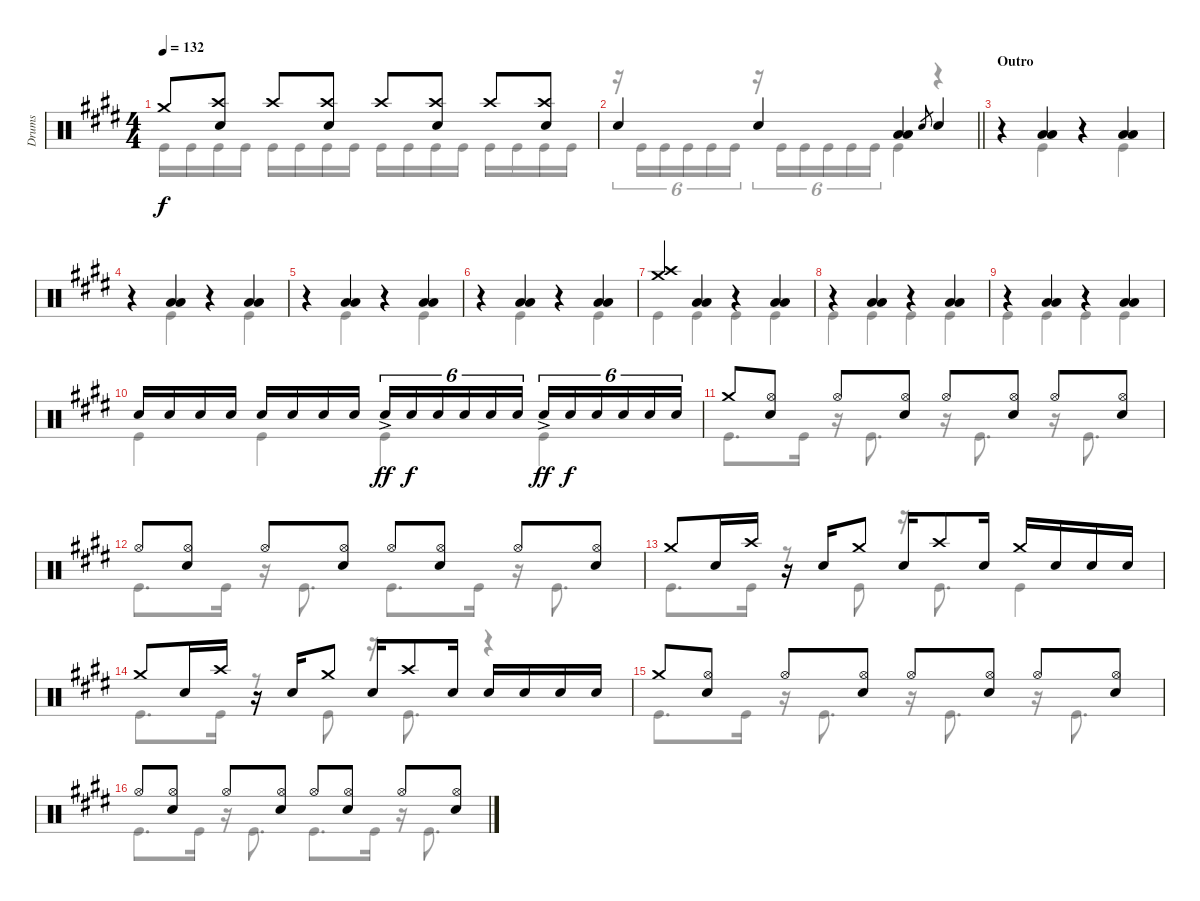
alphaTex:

\track ("Drums" "Drums") {instrument percussion}
\staff {score}
\articulation defaults
\voice
\ts (4 4)
\tempo 132
\clef neutral
\ks c#minor "Crash medium (hit)".8{dy f}
("Crash high (hit)" "Electric Snare (hit)").8 "Crash high (hit)".8 ("Crash high (hit)" "Electric Snare (hit)").8 "Crash high (hit)".8 ("Crash high (hit)" "Electric Snare (hit)").8 "Crash high (hit)".8 ("Crash high (hit)" "Electric Snare (hit)").8 |
\barLineRight lightlight "Electric Snare (hit)".4 "Electric Snare (hit)".4
("Low Tom (hit)" "Low Floor Tom (hit)").4 "Electric Snare (hit)".8{gr} "Electric Snare (hit)".4 |
\section ("" "Outro")
r.4 ("Low Tom (hit)" "Low Floor Tom (hit)").4 r.4 ("Low Tom (hit)" "Low Floor Tom (hit)").4 |
r.4 ("Low Tom (hit)" "Low Floor Tom (hit)").4 r.4 ("Low Tom (hit)" "Low Floor Tom (hit)").4 |
r.4 ("Low Tom (hit)" "Low Floor Tom (hit)").4 r.4 ("Low Tom (hit)" "Low Floor Tom (hit)").4 |
r.4 ("Low Tom (hit)" "Low Floor Tom (hit)").4 r.4 ("Low Tom (hit)" "Low Floor Tom (hit)").4 |
("Crash medium (hit)" "Crash high (hit)").4 ("Low Tom (hit)" "Low Floor Tom (hit)").4 r.4 ("Low Tom (hit)" "Low Floor Tom (hit)").4 |
r.4 ("Low Tom (hit)" "Low Floor Tom (hit)").4 r.4 ("Low Tom (hit)" "Low Floor Tom (hit)").4 |
r.4 ("Low Tom (hit)" "Low Floor Tom (hit)").4 r.4 ("Low Tom (hit)" "Low Floor Tom (hit)").4 |
"Electric Snare (hit)".16 "Electric Snare (hit)".16 "Electric Snare (hit)".16 "Electric Snare (hit)".16 "Electric Snare (hit)".16 "Electric Snare (hit)".16 "Electric Snare (hit)".16 "Electric Snare (hit)".16 "Electric Snare (hit)"{ac}.16{tu (6 4) dy ff} "Electric Snare (hit)".16{tu (6 4) dy f} "Electric Snare (hit)".16{tu (6 4)} "Electric Snare (hit)".16{tu (6 4)} "Electric Snare (hit)".16{tu (6 4)} "Electric Snare (hit)".16{tu (6 4)} "Electric Snare (hit)"{ac}.16{tu (6 4) dy ff} "Electric Snare (hit)".16{tu (6 4) dy f} "Electric Snare (hit)".16{tu (6 4)} "Electric Snare (hit)".16{tu (6 4)} "Electric Snare (hit)".16{tu (6 4)} "Electric Snare (hit)".16{tu (6 4)} |
"Crash medium (hit)".8 ("Hi-Hat (open)" "Electric Snare (hit)").8 "Hi-Hat (open)".8 ("Hi-Hat (open)" "Electric Snare (hit)").8 "Hi-Hat (open)".8 ("Hi-Hat (open)" "Electric Snare (hit)").8 "Hi-Hat (open)".8 ("Hi-Hat (open)" "Electric Snare (hit)").8 |
"Hi-Hat (open)".8 ("Hi-Hat (open)" "Electric Snare (hit)").8 "Hi-Hat (open)".8 ("Hi-Hat (open)" "Electric Snare (hit)").8 "Hi-Hat (open)".8 ("Hi-Hat (open)" "Electric Snare (hit)").8 "Hi-Hat (open)".8 ("Hi-Hat (open)" "Electric Snare (hit)").8 |
"Crash medium (hit)".8 "Electric Snare (hit)".16 "Crash high (hit)".16 r.16 "Electric Snare (hit)".16 "Crash medium (hit)".8 "Electric Snare (hit)".16 "Crash high (hit)".8 "Electric Snare (hit)".16 "Crash medium (hit)".16 "Electric Snare (hit)".16 "Electric Snare (hit)".16 "Electric Snare (hit)".16 |
"Crash medium (hit)".8 "Electric Snare (hit)".16 "Crash high (hit)".16 r.16 "Electric Snare (hit)".16 "Crash medium (hit)".8 "Electric Snare (hit)".16 "Crash high (hit)".8 "Electric Snare (hit)".16 "Electric Snare (hit)".16 "Electric Snare (hit)".16 "Electric Snare (hit)".16 "Electric Snare (hit)".16 |
"Crash medium (hit)".8 ("Hi-Hat (open)" "Electric Snare (hit)").8 "Hi-Hat (open)".8 ("Hi-Hat (open)" "Electric Snare (hit)").8 "Hi-Hat (open)".8 ("Hi-Hat (open)" "Electric Snare (hit)").8 "Hi-Hat (open)".8 ("Hi-Hat (open)" "Electric Snare (hit)").8 |
"Hi-Hat (open)".8 ("Hi-Hat (open)" "Electric Snare (hit)").8 "Hi-Hat (open)".8 ("Hi-Hat (open)" "Electric Snare (hit)").8 "Hi-Hat (open)".8 ("Hi-Hat (open)" "Electric Snare (hit)").8 "Hi-Hat (open)".8 ("Hi-Hat (open)" "Electric Snare (hit)").8
\voice
\clef neutral
\ottava regular
\simile none
\ks c#minor "Kick (hit)".16{dy f} "Kick (hit)".16 "Kick (hit)".16 "Kick (hit)".16 "Kick (hit)".16 "Kick (hit)".16 "Kick (hit)".16 "Kick (hit)".16 "Kick (hit)".16 "Kick (hit)".16 "Kick (hit)".16 "Kick (hit)".16 "Kick (hit)".16 "Kick (hit)".16 "Kick (hit)".16 "Kick (hit)".16
|
\barLineRight lightlight
r.16{tu (6 4)} "Kick (hit)".16{tu (6 4)} "Kick (hit)".16{tu (6 4)} "Kick (hit)".16{tu (6 4)} "Kick (hit)".16{tu (6 4)} "Kick (hit)".16{tu (6 4)} r.16{tu (6 4)} "Kick (hit)".16{tu (6 4)} "Kick (hit)".16{tu (6 4)} "Kick (hit)".16{tu (6 4)} "Kick (hit)".16{tu (6 4)} "Kick (hit)".16{tu (6 4)} "Kick (hit)".4 r.4 |
r.4 "Kick (hit)".4 r.4 "Kick (hit)".4 |
r.4 "Kick (hit)".4 r.4 "Kick (hit)".4 |
r.4 "Kick (hit)".4 r.4 "Kick (hit)".4 |
r.4 "Kick (hit)".4 r.4 "Kick (hit)".4 |
"Kick (hit)".4 "Kick (hit)".4 "Kick (hit)".4 "Kick (hit)".4 |
"Kick (hit)".4 "Kick (hit)".4 "Kick (hit)".4 "Kick (hit)".4 |
"Kick (hit)".4 "Kick (hit)".4 "Kick (hit)".4 "Kick (hit)".4 |
"Kick (hit)".4 "Kick (hit)".4 "Kick (hit)".4 "Kick (hit)".4 |
"Kick (hit)".8{d} "Kick (hit)".16 r.16 "Kick (hit)".8{d} r.16 "Kick (hit)".8{d} r.16 "Kick (hit)".8{d} |
"Kick (hit)".8{d} "Kick (hit)".16 r.16 "Kick (hit)".8{d} "Kick (hit)".8{d} "Kick (hit)".16 r.16 "Kick (hit)".8{d} |
"Kick (hit)".8{d} "Kick (hit)".16 r.8 "Kick (hit)".8 r.16 "Kick (hit)".8{d} "Kick (hit)".4 |
"Kick (hit)".8{d} "Kick (hit)".16 r.8 "Kick (hit)".8 r.16 "Kick (hit)".8{d} r.4 |
"Kick (hit)".8{d} "Kick (hit)".16 r.16 "Kick (hit)".8{d} r.16 "Kick (hit)".8{d} r.16 "Kick (hit)".8{d} |
"Kick (hit)".8{d} "Kick (hit)".16 r.16 "Kick (hit)".8{d} "Kick (hit)".8{d} "Kick (hit)".16 r.16 "Kick (hit)".8{d}
